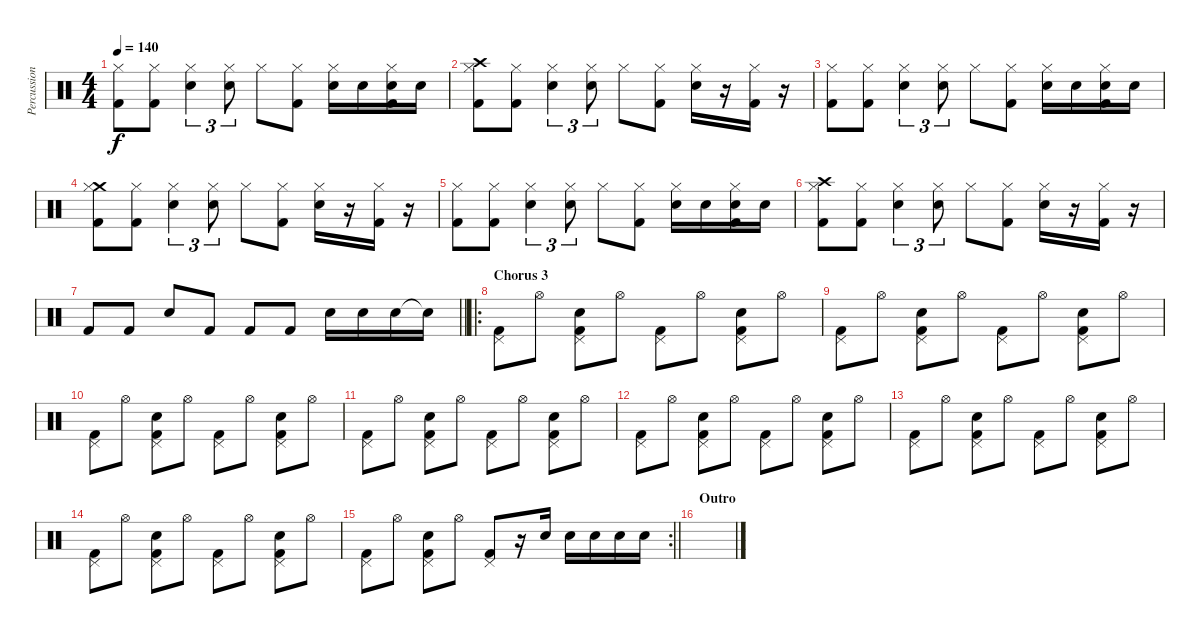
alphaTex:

\track ("Percussion" "Percussion") {instrument percussion}
\staff {score}
\articulation defaults
\ts (4 4)
\tempo 140
\clef neutral
\ks c
("Hi-Hat (closed)" "Kick (hit) 2").8{dy f} ("Hi-Hat (closed)" "Kick (hit) 2").8 ("Hi-Hat (closed)" "Electric Snare (hit)").4{tu (3 2)} ("Hi-Hat (closed)" "Electric Snare (hit)").8{tu (3 2)} "Hi-Hat (closed)".8 ("Hi-Hat (closed)" "Kick (hit) 2").8 ("Hi-Hat (closed)" "Electric Snare (hit)").16 "Electric Snare (hit)".16 ("Hi-Hat (closed)" "Electric Snare (hit)" "Kick (hit) 2").16 "Electric Snare (hit)".16 |
("Crash high (hit)" "Hi-Hat (closed)" "Kick (hit) 2").8 ("Hi-Hat (closed)" "Kick (hit) 2").8 ("Hi-Hat (closed)" "Electric Snare (hit)").4{tu (3 2)} ("Hi-Hat (closed)" "Electric Snare (hit)").8{tu (3 2)} "Hi-Hat (closed)".8 ("Hi-Hat (closed)" "Kick (hit) 2").8 ("Hi-Hat (closed)" "Electric Snare (hit)").16 r.16 ("Hi-Hat (closed)" "Kick (hit) 2").16 r.16 |
("Hi-Hat (closed)" "Kick (hit) 2").8 ("Hi-Hat (closed)" "Kick (hit) 2").8 ("Hi-Hat (closed)" "Electric Snare (hit)").4{tu (3 2)} ("Hi-Hat (closed)" "Electric Snare (hit)").8{tu (3 2)} "Hi-Hat (closed)".8 ("Hi-Hat (closed)" "Kick (hit) 2").8 ("Hi-Hat (closed)" "Electric Snare (hit)").16 "Electric Snare (hit)".16 ("Hi-Hat (closed)" "Electric Snare (hit)" "Kick (hit) 2").16 "Electric Snare (hit)".16 |
("Crash medium (hit)" "Hi-Hat (closed)" "Kick (hit) 2").8 ("Hi-Hat (closed)" "Kick (hit) 2").8 ("Hi-Hat (closed)" "Electric Snare (hit)").4{tu (3 2)} ("Hi-Hat (closed)" "Electric Snare (hit)").8{tu (3 2)} "Hi-Hat (closed)".8 ("Hi-Hat (closed)" "Kick (hit) 2").8 ("Hi-Hat (closed)" "Electric Snare (hit)").16 r.16 ("Hi-Hat (closed)" "Kick (hit) 2").16 r.16 |
("Hi-Hat (closed)" "Kick (hit) 2").8 ("Hi-Hat (closed)" "Kick (hit) 2").8 ("Hi-Hat (closed)" "Electric Snare (hit)").4{tu (3 2)} ("Hi-Hat (closed)" "Electric Snare (hit)").8{tu (3 2)} "Hi-Hat (closed)".8 ("Hi-Hat (closed)" "Kick (hit) 2").8 ("Hi-Hat (closed)" "Electric Snare (hit)").16 "Electric Snare (hit)".16 ("Hi-Hat (closed)" "Electric Snare (hit)" "Kick (hit) 2").16 "Electric Snare (hit)".16 |
("Crash high (hit)" "Hi-Hat (closed)" "Kick (hit) 2").8 ("Hi-Hat (closed)" "Kick (hit) 2").8 ("Hi-Hat (closed)" "Electric Snare (hit)").4{tu (3 2)} ("Hi-Hat (closed)" "Electric Snare (hit)").8{tu (3 2)} "Hi-Hat (closed)".8 ("Hi-Hat (closed)" "Kick (hit) 2").8 ("Hi-Hat (closed)" "Electric Snare (hit)").16 r.16 ("Hi-Hat (closed)" "Kick (hit) 2").16 r.16 |
\barLineRight lightlight "Kick (hit) 2".8 "Kick (hit) 2".8 "Electric Snare (hit)".8 "Kick (hit) 2".8 "Kick (hit) 2".8 "Kick (hit) 2".8 "Electric Snare (hit)".16 "Electric Snare (hit)".16 "Electric Snare (hit)".16 "Snare (hit)"{t}.16
|
\ro
\section ("" "Chorus 3")
("Pedal Hi-Hat (hit)" "Kick (hit) 2").8 "Hi-Hat (open)".8 ("Pedal Hi-Hat (hit)" "Electric Snare (hit)" "Kick (hit) 2").8 "Hi-Hat (open)".8 ("Pedal Hi-Hat (hit)" "Kick (hit) 2").8 "Hi-Hat (open)".8 ("Pedal Hi-Hat (hit)" "Electric Snare (hit)" "Kick (hit) 2").8 "Hi-Hat (open)".8 |
("Pedal Hi-Hat (hit)" "Kick (hit) 2").8 "Hi-Hat (open)".8 ("Pedal Hi-Hat (hit)" "Electric Snare (hit)" "Kick (hit) 2").8 "Hi-Hat (open)".8 ("Pedal Hi-Hat (hit)" "Kick (hit) 2").8 "Hi-Hat (open)".8 ("Pedal Hi-Hat (hit)" "Electric Snare (hit)" "Kick (hit) 2").8 "Hi-Hat (open)".8 |
("Pedal Hi-Hat (hit)" "Kick (hit) 2").8 "Hi-Hat (open)".8 ("Pedal Hi-Hat (hit)" "Electric Snare (hit)" "Kick (hit) 2").8 "Hi-Hat (open)".8 ("Pedal Hi-Hat (hit)" "Kick (hit) 2").8 "Hi-Hat (open)".8 ("Pedal Hi-Hat (hit)" "Electric Snare (hit)" "Kick (hit) 2").8 "Hi-Hat (open)".8 |
("Pedal Hi-Hat (hit)" "Kick (hit) 2").8 "Hi-Hat (open)".8 ("Pedal Hi-Hat (hit)" "Electric Snare (hit)" "Kick (hit) 2").8 "Hi-Hat (open)".8 ("Pedal Hi-Hat (hit)" "Kick (hit) 2").8 "Hi-Hat (open)".8 ("Pedal Hi-Hat (hit)" "Electric Snare (hit)" "Kick (hit) 2").8 "Hi-Hat (open)".8 |
("Pedal Hi-Hat (hit)" "Kick (hit) 2").8 "Hi-Hat (open)".8 ("Pedal Hi-Hat (hit)" "Electric Snare (hit)" "Kick (hit) 2").8 "Hi-Hat (open)".8 ("Pedal Hi-Hat (hit)" "Kick (hit) 2").8 "Hi-Hat (open)".8 ("Pedal Hi-Hat (hit)" "Electric Snare (hit)" "Kick (hit) 2").8 "Hi-Hat (open)".8 |
("Pedal Hi-Hat (hit)" "Kick (hit) 2").8 "Hi-Hat (open)".8 ("Pedal Hi-Hat (hit)" "Electric Snare (hit)" "Kick (hit) 2").8 "Hi-Hat (open)".8 ("Pedal Hi-Hat (hit)" "Kick (hit) 2").8 "Hi-Hat (open)".8 ("Pedal Hi-Hat (hit)" "Electric Snare (hit)" "Kick (hit) 2").8 "Hi-Hat (open)".8 |
("Pedal Hi-Hat (hit)" "Kick (hit) 2").8 "Hi-Hat (open)".8 ("Pedal Hi-Hat (hit)" "Electric Snare (hit)" "Kick (hit) 2").8 "Hi-Hat (open)".8 ("Pedal Hi-Hat (hit)" "Kick (hit) 2").8 "Hi-Hat (open)".8 ("Pedal Hi-Hat (hit)" "Electric Snare (hit)" "Kick (hit) 2").8 "Hi-Hat (open)".8 |
\rc 2
\barLineRight lightlight
("Pedal Hi-Hat (hit)" "Kick (hit) 2").8 "Hi-Hat (open)".8 ("Pedal Hi-Hat (hit)" "Electric Snare (hit)" "Kick (hit) 2").8 "Hi-Hat (open)".8 ("Pedal Hi-Hat (hit)" "Kick (hit) 2").8 r.16 "Electric Snare (hit)".16 "Electric Snare (hit)".16 "Electric Snare (hit)".16 "Electric Snare (hit)".16 "Electric Snare (hit)".16 |
\section ("" "Outro")
